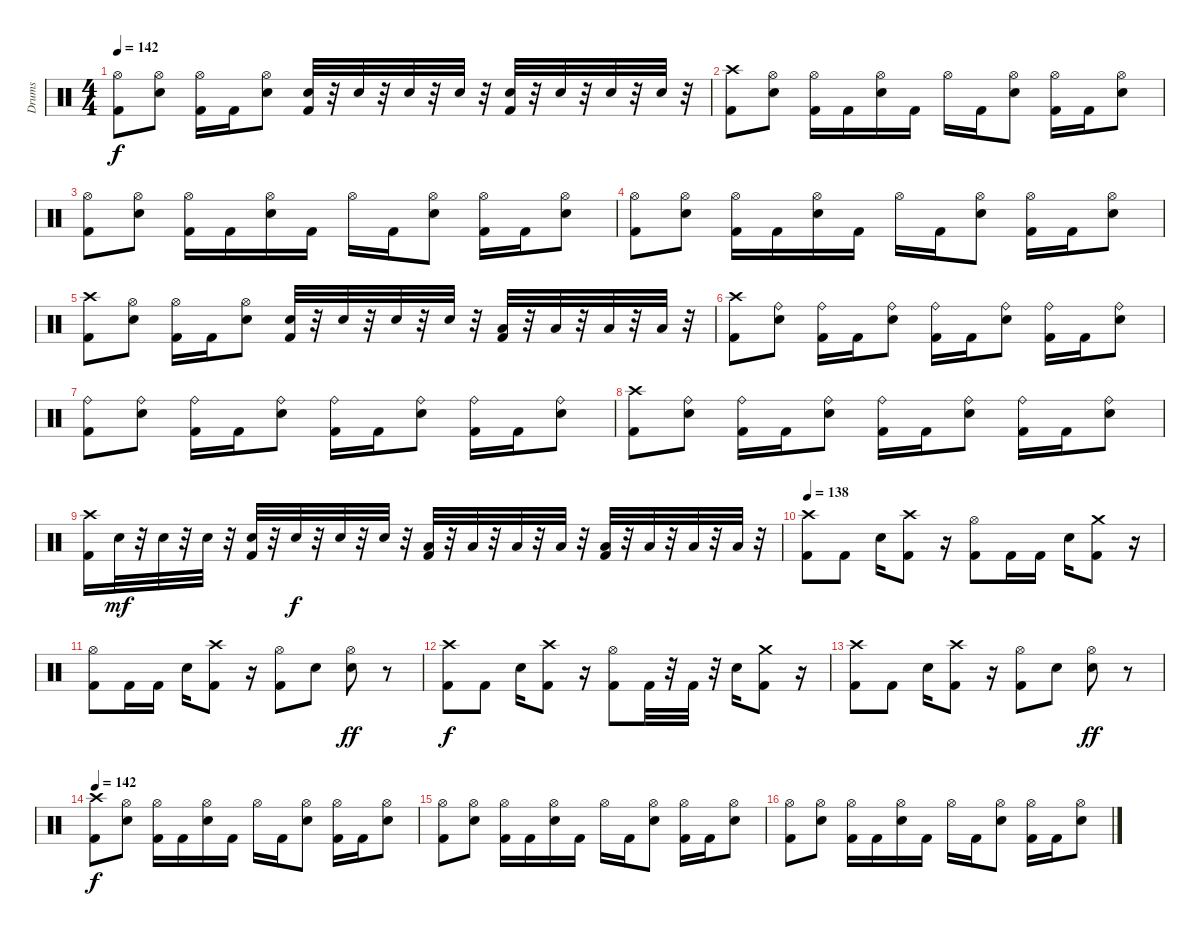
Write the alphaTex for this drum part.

\track ("Drums" "Drums") {instrument percussion}
\staff {score}
\articulation defaults
\ts (4 4)
\tempo 142
\clef neutral
\ks c
("Kick (hit) 2" "Hi-Hat (open)").8{dy f} ("Electric Snare (hit)" "Hi-Hat (open)").8 ("Hi-Hat (open)" "Kick (hit) 2").16 "Kick (hit) 2".16 ("Hi-Hat (open)" "Electric Snare (hit)").8 ("Electric Snare (hit)" "Kick (hit) 2").32 r.32 "Electric Snare (hit)".32 r.32 "Electric Snare (hit)".32 r.32 "Electric Snare (hit)".32 r.32 ("Electric Snare (hit)" "Kick (hit) 2").32 r.32 "Electric Snare (hit)".32 r.32 "Electric Snare (hit)".32 r.32 "Electric Snare (hit)".32 r.32 |
("Kick (hit) 2" "Crash high (hit)").8 ("Electric Snare (hit)" "Hi-Hat (open)").8 ("Hi-Hat (open)" "Kick (hit) 2").16 "Kick (hit) 2".16 ("Hi-Hat (open)" "Electric Snare (hit)").16 "Kick (hit) 2".16 "Hi-Hat (open)".16 "Kick (hit) 2".16 ("Hi-Hat (open)" "Electric Snare (hit)").8 ("Hi-Hat (open)" "Kick (hit) 2").16 "Kick (hit) 2".16 ("Hi-Hat (open)" "Electric Snare (hit)").8 |
("Kick (hit) 2" "Hi-Hat (open)").8 ("Electric Snare (hit)" "Hi-Hat (open)").8 ("Hi-Hat (open)" "Kick (hit) 2").16 "Kick (hit) 2".16 ("Hi-Hat (open)" "Electric Snare (hit)").16 "Kick (hit) 2".16 "Hi-Hat (open)".16 "Kick (hit) 2".16 ("Hi-Hat (open)" "Electric Snare (hit)").8 ("Hi-Hat (open)" "Kick (hit) 2").16 "Kick (hit) 2".16 ("Hi-Hat (open)" "Electric Snare (hit)").8 |
("Kick (hit) 2" "Hi-Hat (open)").8 ("Electric Snare (hit)" "Hi-Hat (open)").8 ("Hi-Hat (open)" "Kick (hit) 2").16 "Kick (hit) 2".16 ("Hi-Hat (open)" "Electric Snare (hit)").16 "Kick (hit) 2".16 "Hi-Hat (open)".16 "Kick (hit) 2".16 ("Hi-Hat (open)" "Electric Snare (hit)").8 ("Hi-Hat (open)" "Kick (hit) 2").16 "Kick (hit) 2".16 ("Hi-Hat (open)" "Electric Snare (hit)").8 |
("Kick (hit) 2" "Crash high (hit)").8 ("Electric Snare (hit)" "Hi-Hat (open)").8 ("Hi-Hat (open)" "Kick (hit) 2").16 "Kick (hit) 2".16 ("Hi-Hat (open)" "Electric Snare (hit)").8 ("Electric Snare (hit)" "Kick (hit) 2").32 r.32 "Electric Snare (hit)".32 r.32 "Electric Snare (hit)".32 r.32 "Electric Snare (hit)".32 r.32 ("Kick (hit) 2" "Low Tom (hit)").32 r.32 "Low Tom (hit)".32 r.32 "Low Floor Tom (hit)".32 r.32 "Low Floor Tom (hit)".32 r.32 |
("Crash high (hit)" "Kick (hit) 2").8 ("Ride (bell)" "Electric Snare (hit)").8 ("Ride (bell)" "Kick (hit) 2").16 "Kick (hit) 2".16 ("Ride (bell)" "Electric Snare (hit)").8 ("Ride (bell)" "Kick (hit) 2").16 "Kick (hit) 2".16 ("Ride (bell)" "Electric Snare (hit)").8 ("Ride (bell)" "Kick (hit) 2").16 "Kick (hit) 2".16 ("Ride (bell)" "Electric Snare (hit)").8 |
("Ride (bell)" "Kick (hit) 2").8 ("Ride (bell)" "Electric Snare (hit)").8 ("Ride (bell)" "Kick (hit) 2").16 "Kick (hit) 2".16 ("Ride (bell)" "Electric Snare (hit)").8 ("Ride (bell)" "Kick (hit) 2").16 "Kick (hit) 2".16 ("Ride (bell)" "Electric Snare (hit)").8 ("Ride (bell)" "Kick (hit) 2").16 "Kick (hit) 2".16 ("Ride (bell)" "Electric Snare (hit)").8 |
("Crash high (hit)" "Kick (hit) 2").8 ("Ride (bell)" "Electric Snare (hit)").8 ("Ride (bell)" "Kick (hit) 2").16 "Kick (hit) 2".16 ("Ride (bell)" "Electric Snare (hit)").8 ("Ride (bell)" "Kick (hit) 2").16 "Kick (hit) 2".16 ("Ride (bell)" "Electric Snare (hit)").8 ("Ride (bell)" "Kick (hit) 2").16 "Kick (hit) 2".16 ("Ride (bell)" "Electric Snare (hit)").8 |
("Crash high (hit)" "Kick (hit) 2").16 "Electric Snare (hit)".32{dy mf} r.32 "Electric Snare (hit)".32 r.32 "Electric Snare (hit)".32 r.32 ("Electric Snare (hit)" "Kick (hit) 2").32 r.32 "Electric Snare (hit)".32{dy f} r.32 "Electric Snare (hit)".32 r.32 "Electric Snare (hit)".32 r.32 ("Kick (hit) 2" "Low Tom (hit)").32 r.32 "Low Tom (hit)".32 r.32 "Low Tom (hit)".32 r.32 "Low Tom (hit)".32 r.32 ("Kick (hit) 2" "Low Floor Tom (hit)").32 r.32 "Low Floor Tom (hit)".32 r.32 "Low Floor Tom (hit)".32 r.32 "Low Floor Tom (hit)".32 r.32 |
\tempo 138
("Kick (hit) 2" "Crash high (hit)").8 "Kick (hit) 2".8 "Electric Snare (hit)".16 ("Kick (hit) 2" "Crash high (hit)").8 r.16 ("Kick (hit) 2" "Hi-Hat (open)").8 "Kick (hit) 2".16 "Kick (hit) 2".16 "Electric Snare (hit)".16 ("Kick (hit) 2" "Crash medium (hit)").8 r.16 |
("Kick (hit) 2" "Hi-Hat (open)").8 "Kick (hit) 2".16 "Kick (hit) 2".16 "Electric Snare (hit)".16 ("Kick (hit) 2" "Crash high (hit)").8 r.16 ("Kick (hit) 2" "Hi-Hat (open)").8 "Electric Snare (hit)".8 ("Electric Snare (hit)" "Hi-Hat (open)").8{dy ff} r.8 |
("Kick (hit) 2" "Crash high (hit)").8{dy f} "Kick (hit) 2".8 "Electric Snare (hit)".16 ("Kick (hit) 2" "Crash high (hit)").8 r.16 ("Kick (hit) 2" "Hi-Hat (open)").8 "Kick (hit) 2".32 r.32 "Kick (hit) 2".32 r.32 "Electric Snare (hit)".16 ("Kick (hit) 2" "Crash medium (hit)").8 r.16 |
("Kick (hit) 2" "Crash high (hit)").8 "Kick (hit) 2".8 "Electric Snare (hit)".16 ("Kick (hit) 2" "Crash high (hit)").8 r.16 ("Kick (hit) 2" "Hi-Hat (open)").8 "Electric Snare (hit)".8 ("Electric Snare (hit)" "Hi-Hat (open)").8{dy ff} r.8 |
\tempo 142
("Kick (hit) 2" "Crash high (hit)").8{dy f} ("Electric Snare (hit)" "Hi-Hat (open)").8 ("Hi-Hat (open)" "Kick (hit) 2").16 "Kick (hit) 2".16 ("Hi-Hat (open)" "Electric Snare (hit)").16 "Kick (hit) 2".16 "Hi-Hat (open)".16 "Kick (hit) 2".16 ("Hi-Hat (open)" "Electric Snare (hit)").8 ("Hi-Hat (open)" "Kick (hit) 2").16 "Kick (hit) 2".16 ("Hi-Hat (open)" "Electric Snare (hit)").8 |
("Kick (hit) 2" "Hi-Hat (open)").8 ("Electric Snare (hit)" "Hi-Hat (open)").8 ("Hi-Hat (open)" "Kick (hit) 2").16 "Kick (hit) 2".16 ("Hi-Hat (open)" "Electric Snare (hit)").16 "Kick (hit) 2".16 "Hi-Hat (open)".16 "Kick (hit) 2".16 ("Hi-Hat (open)" "Electric Snare (hit)").8 ("Hi-Hat (open)" "Kick (hit) 2").16 "Kick (hit) 2".16 ("Hi-Hat (open)" "Electric Snare (hit)").8 |
("Kick (hit) 2" "Hi-Hat (open)").8 ("Electric Snare (hit)" "Hi-Hat (open)").8 ("Hi-Hat (open)" "Kick (hit) 2").16 "Kick (hit) 2".16 ("Hi-Hat (open)" "Electric Snare (hit)").16 "Kick (hit) 2".16 "Hi-Hat (open)".16 "Kick (hit) 2".16 ("Hi-Hat (open)" "Electric Snare (hit)").8 ("Hi-Hat (open)" "Kick (hit) 2").16 "Kick (hit) 2".16 ("Hi-Hat (open)" "Electric Snare (hit)").8
